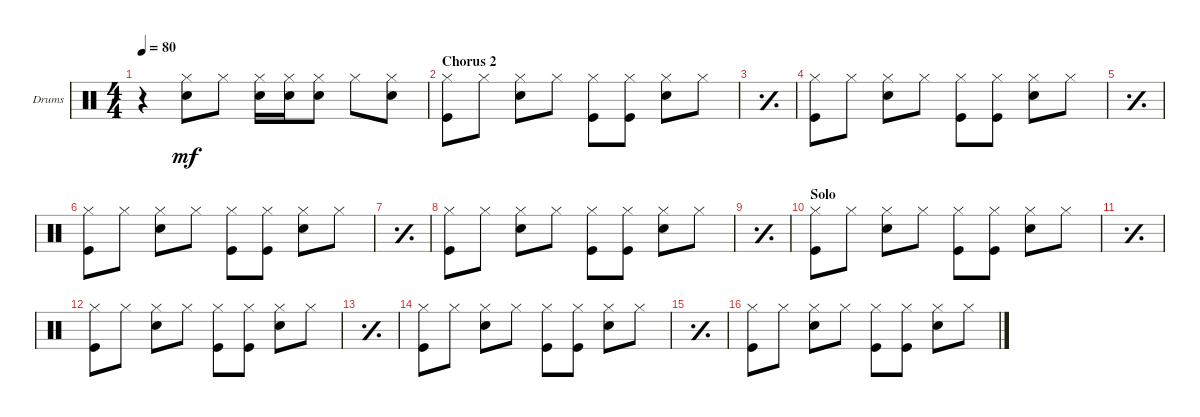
\defaultSystemsLayout 4
\bracketExtendMode groupsimilarinstruments
\firstSystemTrackNameOrientation horizontal
\otherSystemsTrackNameOrientation horizontal
\chordDiagramsInScore
\track ("Drumkit" "Drums") {instrument percussion}
\staff {score}
\articulation defaults
\ts (4 4)
\tempo 80
\clef neutral
\ks c
r.4{dy mf} ("Hi-Hat (closed)" "Snare (hit) 2").8 "Hi-Hat (closed)".8 ("Hi-Hat (closed)" "Snare (hit) 2").16 ("Hi-Hat (closed)" "Snare (hit) 2").16 ("Hi-Hat (closed)" "Snare (hit) 2").8 "Hi-Hat (closed)".8 ("Hi-Hat (closed)" "Snare (hit) 2").8 |
\section ("" "Chorus 2")
("Hi-Hat (closed)" "Kick (hit)").8 "Hi-Hat (closed)".8 ("Hi-Hat (closed)" "Snare (hit) 2").8 "Hi-Hat (closed)".8 ("Hi-Hat (closed)" "Kick (hit)").8 ("Hi-Hat (closed)" "Kick (hit)").8 ("Hi-Hat (closed)" "Snare (hit) 2").8 "Hi-Hat (closed)".8 |
\simile simple
|
\simile none
("Hi-Hat (closed)" "Kick (hit)").8 "Hi-Hat (closed)".8 ("Hi-Hat (closed)" "Snare (hit) 2").8 "Hi-Hat (closed)".8 ("Hi-Hat (closed)" "Kick (hit)").8 ("Hi-Hat (closed)" "Kick (hit)").8 ("Hi-Hat (closed)" "Snare (hit) 2").8 "Hi-Hat (closed)".8 |
\simile simple
|
\simile none
("Hi-Hat (closed)" "Kick (hit)").8 "Hi-Hat (closed)".8 ("Hi-Hat (closed)" "Snare (hit) 2").8 "Hi-Hat (closed)".8 ("Hi-Hat (closed)" "Kick (hit)").8 ("Hi-Hat (closed)" "Kick (hit)").8 ("Hi-Hat (closed)" "Snare (hit) 2").8 "Hi-Hat (closed)".8 |
\simile simple
|
\simile none
("Hi-Hat (closed)" "Kick (hit)").8 "Hi-Hat (closed)".8 ("Hi-Hat (closed)" "Snare (hit) 2").8 "Hi-Hat (closed)".8 ("Hi-Hat (closed)" "Kick (hit)").8 ("Hi-Hat (closed)" "Kick (hit)").8 ("Hi-Hat (closed)" "Snare (hit) 2").8 "Hi-Hat (closed)".8 |
\simile simple
|
\section ("" "Solo")
\simile none
("Hi-Hat (closed)" "Kick (hit)").8 "Hi-Hat (closed)".8 ("Hi-Hat (closed)" "Snare (hit) 2").8 "Hi-Hat (closed)".8 ("Hi-Hat (closed)" "Kick (hit)").8 ("Hi-Hat (closed)" "Kick (hit)").8 ("Hi-Hat (closed)" "Snare (hit) 2").8 "Hi-Hat (closed)".8 |
\simile simple
|
\simile none
("Hi-Hat (closed)" "Kick (hit)").8 "Hi-Hat (closed)".8 ("Hi-Hat (closed)" "Snare (hit) 2").8 "Hi-Hat (closed)".8 ("Hi-Hat (closed)" "Kick (hit)").8 ("Hi-Hat (closed)" "Kick (hit)").8 ("Hi-Hat (closed)" "Snare (hit) 2").8 "Hi-Hat (closed)".8 |
\simile simple
|
\simile none
("Hi-Hat (closed)" "Kick (hit)").8 "Hi-Hat (closed)".8 ("Hi-Hat (closed)" "Snare (hit) 2").8 "Hi-Hat (closed)".8 ("Hi-Hat (closed)" "Kick (hit)").8 ("Hi-Hat (closed)" "Kick (hit)").8 ("Hi-Hat (closed)" "Snare (hit) 2").8 "Hi-Hat (closed)".8 |
\simile simple
|
\simile none
("Hi-Hat (closed)" "Kick (hit)").8 "Hi-Hat (closed)".8 ("Hi-Hat (closed)" "Snare (hit) 2").8 "Hi-Hat (closed)".8 ("Hi-Hat (closed)" "Kick (hit)").8 ("Hi-Hat (closed)" "Kick (hit)").8 ("Hi-Hat (closed)" "Snare (hit) 2").8 "Hi-Hat (closed)".8
